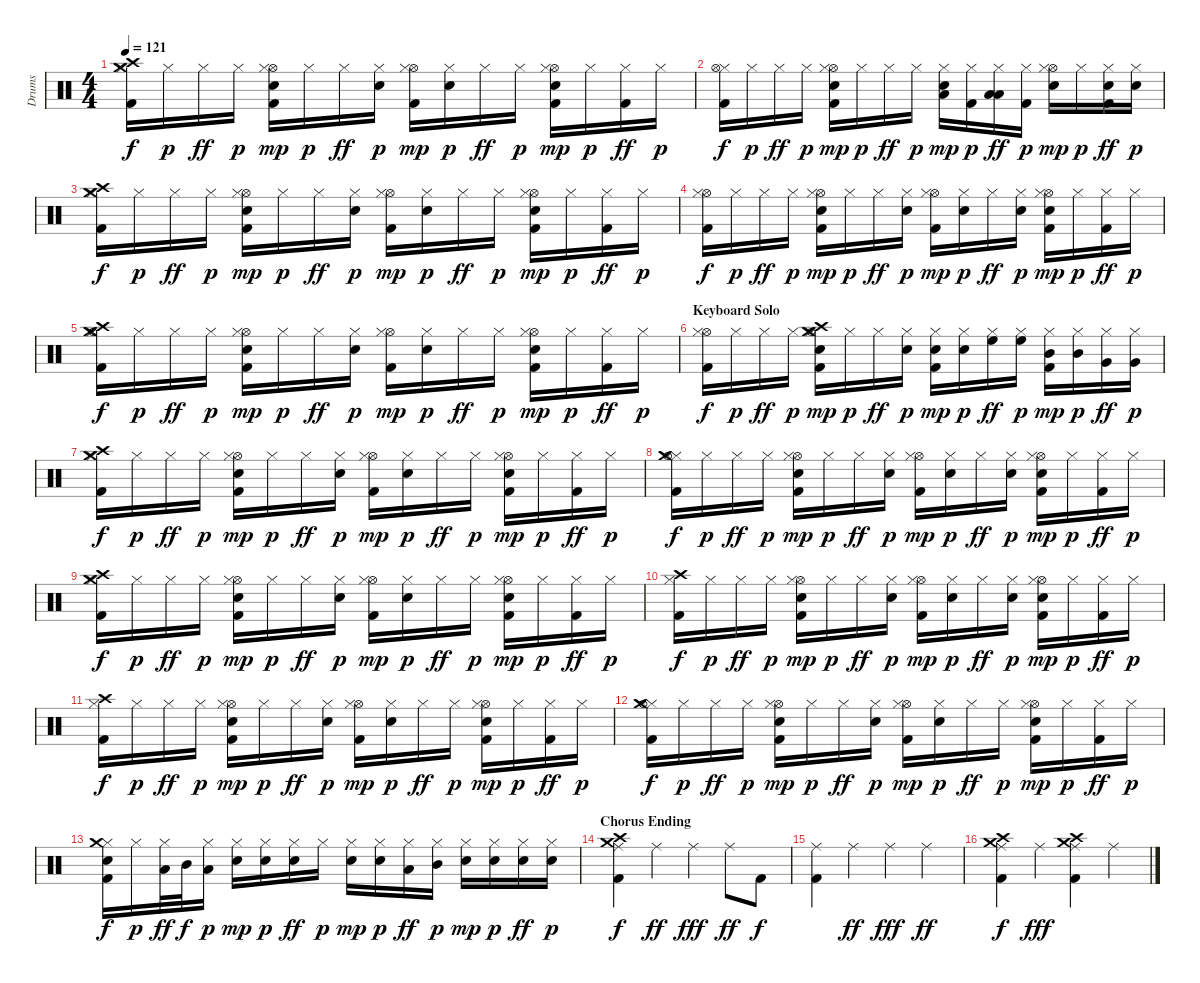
\track ("Drums" "Drums") {instrument percussion}
\staff {score}
\articulation defaults
\ts (4 4)
\tempo 121
\clef neutral
\ks c
("Crash medium (hit)" "Crash high (hit)" "Hi-Hat (closed)" "Kick (hit) 2").16{dy f} "Hi-Hat (closed)".16{dy p} "Hi-Hat (closed)".16{dy ff} "Hi-Hat (closed)".16{dy p} ("Hi-Hat (open)" "Kick (hit) 2" "Electric Snare (hit)" "Hi-Hat (closed)").16{dy mp} "Hi-Hat (closed)".16{dy p} "Hi-Hat (closed)".16{dy ff} ("Electric Snare (hit)" "Hi-Hat (closed)").16{dy p} ("Hi-Hat (open)" "Kick (hit) 2" "Hi-Hat (closed)").16{dy mp} ("Electric Snare (hit)" "Hi-Hat (closed)").16{dy p} "Hi-Hat (closed)".16{dy ff} "Hi-Hat (closed)".16{dy p} ("Hi-Hat (open)" "Kick (hit) 2" "Electric Snare (hit)" "Hi-Hat (closed)").16{dy mp} "Hi-Hat (closed)".16{dy p} ("Kick (hit) 2" "Hi-Hat (closed)").16{dy ff} "Hi-Hat (closed)".16{dy p} |
("Hi-Hat (closed)" "Hi-Hat (open)" "Kick (hit) 2").16{dy f} "Hi-Hat (closed)".16{dy p} "Hi-Hat (closed)".16{dy ff} "Hi-Hat (closed)".16{dy p} ("Hi-Hat (open)" "Snare (hit) 2" "Kick (hit) 2" "Hi-Hat (closed)").16{dy mp} "Hi-Hat (closed)".16{dy p} "Hi-Hat (closed)".16{dy ff} "Hi-Hat (closed)".16{dy p} ("Electric Snare (hit)" "Low Tom (hit)" "Hi-Hat (closed)").16{dy mp} ("Kick (hit) 2" "Hi-Hat (closed)").16{dy p} ("Low Tom (hit)" "Low Floor Tom (hit)" "Hi-Hat (closed)").16{dy ff} ("Kick (hit) 2" "Hi-Hat (closed)").16{dy p} ("Hi-Hat (open)" "Snare (hit) 2" "Hi-Hat (closed)").16{dy mp} "Hi-Hat (closed)".16{dy p} ("Kick (hit) 2" "Snare (hit) 2" "Hi-Hat (closed)").16{dy ff} ("Electric Snare (hit)" "Hi-Hat (closed)").16{dy p} |
("Crash medium (hit)" "Crash high (hit)" "Kick (hit) 2" "Hi-Hat (closed)").16{dy f} "Hi-Hat (closed)".16{dy p} "Hi-Hat (closed)".16{dy ff} "Hi-Hat (closed)".16{dy p} ("Hi-Hat (open)" "Kick (hit) 2" "Electric Snare (hit)" "Hi-Hat (closed)").16{dy mp} "Hi-Hat (closed)".16{dy p} "Hi-Hat (closed)".16{dy ff} ("Electric Snare (hit)" "Hi-Hat (closed)").16{dy p} ("Hi-Hat (open)" "Kick (hit) 2" "Hi-Hat (closed)").16{dy mp} ("Electric Snare (hit)" "Hi-Hat (closed)").16{dy p} "Hi-Hat (closed)".16{dy ff} "Hi-Hat (closed)".16{dy p} ("Hi-Hat (open)" "Kick (hit) 2" "Electric Snare (hit)" "Hi-Hat (closed)").16{dy mp} "Hi-Hat (closed)".16{dy p} ("Kick (hit) 2" "Hi-Hat (closed)").16{dy ff} "Hi-Hat (closed)".16{dy p} |
("Hi-Hat (open)" "Kick (hit) 2" "Hi-Hat (closed)").16{dy f} "Hi-Hat (closed)".16{dy p} "Hi-Hat (closed)".16{dy ff} "Hi-Hat (closed)".16{dy p} ("Hi-Hat (open)" "Kick (hit) 2" "Electric Snare (hit)" "Hi-Hat (closed)").16{dy mp} "Hi-Hat (closed)".16{dy p} "Hi-Hat (closed)".16{dy ff} ("Electric Snare (hit)" "Hi-Hat (closed)").16{dy p} ("Hi-Hat (open)" "Kick (hit) 2" "Hi-Hat (closed)").16{dy mp} ("Electric Snare (hit)" "Hi-Hat (closed)").16{dy p} "Hi-Hat (closed)".16{dy ff} ("Electric Snare (hit)" "Hi-Hat (closed)").16{dy p} ("Hi-Hat (open)" "Kick (hit) 2" "Electric Snare (hit)" "Hi-Hat (closed)").16{dy mp} "Hi-Hat (closed)".16{dy p} ("Kick (hit) 2" "Hi-Hat (closed)").16{dy ff} "Hi-Hat (closed)".16{dy p} |
("Hi-Hat (open)" "Kick (hit) 2" "Crash high (hit)" "Crash medium (hit)" "Hi-Hat (closed)").16{dy f} "Hi-Hat (closed)".16{dy p} "Hi-Hat (closed)".16{dy ff} "Hi-Hat (closed)".16{dy p} ("Hi-Hat (open)" "Kick (hit) 2" "Electric Snare (hit)" "Hi-Hat (closed)").16{dy mp} "Hi-Hat (closed)".16{dy p} "Hi-Hat (closed)".16{dy ff} ("Electric Snare (hit)" "Hi-Hat (closed)").16{dy p} ("Hi-Hat (open)" "Kick (hit) 2" "Hi-Hat (closed)").16{dy mp} ("Electric Snare (hit)" "Hi-Hat (closed)").16{dy p} "Hi-Hat (closed)".16{dy ff} "Hi-Hat (closed)".16{dy p} ("Hi-Hat (open)" "Kick (hit) 2" "Electric Snare (hit)" "Hi-Hat (closed)").16{dy mp} "Hi-Hat (closed)".16{dy p} ("Kick (hit) 2" "Hi-Hat (closed)").16{dy ff} "Hi-Hat (closed)".16{dy p} |
\section ("" "Keyboard Solo")
("Hi-Hat (open)" "Kick (hit) 2" "Hi-Hat (closed)").16{dy f} "Hi-Hat (closed)".16{dy p} "Hi-Hat (closed)".16{dy ff} "Hi-Hat (closed)".16{dy p} ("Hi-Hat (open)" "Kick (hit) 2" "Crash high (hit)" "Crash medium (hit)" "Electric Snare (hit)" "Hi-Hat (closed)").16{dy mp} "Hi-Hat (closed)".16{dy p} "Hi-Hat (closed)".16{dy ff} ("Electric Snare (hit)" "Hi-Hat (closed)").16{dy p} ("Snare (hit) 2" "Kick (hit) 2" "Hi-Hat (closed)").16{dy mp} ("Electric Snare (hit)" "Hi-Hat (closed)").16{dy p} ("High Floor Tom (hit)" "Hi-Hat (closed)").16{dy ff} ("High Floor Tom (hit)" "Hi-Hat (closed)").16{dy p} ("Mid Tom (hit)" "Kick (hit) 2" "Hi-Hat (closed)").16{dy mp} ("Mid Tom (hit)" "Hi-Hat (closed)").16{dy p} ("Very Low Tom (hit)" "Hi-Hat (closed)").16{dy ff} ("Very Low Tom (hit)" "Hi-Hat (closed)").16{dy p} |
("Kick (hit) 2" "Crash high (hit)" "Crash medium (hit)" "Hi-Hat (closed)").16{dy f} "Hi-Hat (closed)".16{dy p} "Hi-Hat (closed)".16{dy ff} "Hi-Hat (closed)".16{dy p} ("Hi-Hat (open)" "Kick (hit) 2" "Electric Snare (hit)" "Hi-Hat (closed)").16{dy mp} "Hi-Hat (closed)".16{dy p} "Hi-Hat (closed)".16{dy ff} ("Electric Snare (hit)" "Hi-Hat (closed)").16{dy p} ("Hi-Hat (open)" "Kick (hit) 2" "Hi-Hat (closed)").16{dy mp} ("Electric Snare (hit)" "Hi-Hat (closed)").16{dy p} "Hi-Hat (closed)".16{dy ff} "Hi-Hat (closed)".16{dy p} ("Hi-Hat (open)" "Kick (hit) 2" "Electric Snare (hit)" "Hi-Hat (closed)").16{dy mp} "Hi-Hat (closed)".16{dy p} ("Kick (hit) 2" "Hi-Hat (closed)").16{dy ff} "Hi-Hat (closed)".16{dy p} |
("Hi-Hat (closed)" "Crash medium (hit)" "Hi-Hat (open)" "Kick (hit) 2").16{dy f} "Hi-Hat (closed)".16{dy p} "Hi-Hat (closed)".16{dy ff} "Hi-Hat (closed)".16{dy p} ("Hi-Hat (open)" "Kick (hit) 2" "Electric Snare (hit)" "Hi-Hat (closed)").16{dy mp} "Hi-Hat (closed)".16{dy p} "Hi-Hat (closed)".16{dy ff} ("Electric Snare (hit)" "Hi-Hat (closed)").16{dy p} ("Hi-Hat (open)" "Kick (hit) 2" "Hi-Hat (closed)").16{dy mp} ("Electric Snare (hit)" "Hi-Hat (closed)").16{dy p} "Hi-Hat (closed)".16{dy ff} ("Electric Snare (hit)" "Hi-Hat (closed)").16{dy p} ("Hi-Hat (open)" "Kick (hit) 2" "Electric Snare (hit)" "Hi-Hat (closed)").16{dy mp} "Hi-Hat (closed)".16{dy p} ("Kick (hit) 2" "Hi-Hat (closed)").16{dy ff} "Hi-Hat (closed)".16{dy p} |
("Crash high (hit)" "Crash medium (hit)" "Hi-Hat (closed)" "Kick (hit) 2").16{dy f} "Hi-Hat (closed)".16{dy p} "Hi-Hat (closed)".16{dy ff} "Hi-Hat (closed)".16{dy p} ("Hi-Hat (open)" "Kick (hit) 2" "Electric Snare (hit)" "Hi-Hat (closed)").16{dy mp} "Hi-Hat (closed)".16{dy p} "Hi-Hat (closed)".16{dy ff} ("Electric Snare (hit)" "Hi-Hat (closed)").16{dy p} ("Hi-Hat (open)" "Kick (hit) 2" "Hi-Hat (closed)").16{dy mp} ("Electric Snare (hit)" "Hi-Hat (closed)").16{dy p} "Hi-Hat (closed)".16{dy ff} "Hi-Hat (closed)".16{dy p} ("Hi-Hat (open)" "Kick (hit) 2" "Electric Snare (hit)" "Hi-Hat (closed)").16{dy mp} "Hi-Hat (closed)".16{dy p} ("Kick (hit) 2" "Hi-Hat (closed)").16{dy ff} "Hi-Hat (closed)".16{dy p} |
("Crash high (hit)" "Hi-Hat (closed)" "Kick (hit) 2").16{dy f} "Hi-Hat (closed)".16{dy p} "Hi-Hat (closed)".16{dy ff} "Hi-Hat (closed)".16{dy p} ("Hi-Hat (open)" "Kick (hit) 2" "Electric Snare (hit)" "Hi-Hat (closed)").16{dy mp} "Hi-Hat (closed)".16{dy p} "Hi-Hat (closed)".16{dy ff} ("Electric Snare (hit)" "Hi-Hat (closed)").16{dy p} ("Hi-Hat (open)" "Kick (hit) 2" "Hi-Hat (closed)").16{dy mp} ("Electric Snare (hit)" "Hi-Hat (closed)").16{dy p} "Hi-Hat (closed)".16{dy ff} ("Electric Snare (hit)" "Hi-Hat (closed)").16{dy p} ("Hi-Hat (open)" "Kick (hit) 2" "Electric Snare (hit)" "Hi-Hat (closed)").16{dy mp} "Hi-Hat (closed)".16{dy p} ("Kick (hit) 2" "Hi-Hat (closed)").16{dy ff} "Hi-Hat (closed)".16{dy p} |
("Hi-Hat (closed)" "Crash high (hit)" "Kick (hit) 2").16{dy f} "Hi-Hat (closed)".16{dy p} "Hi-Hat (closed)".16{dy ff} "Hi-Hat (closed)".16{dy p} ("Hi-Hat (open)" "Kick (hit) 2" "Electric Snare (hit)" "Hi-Hat (closed)").16{dy mp} "Hi-Hat (closed)".16{dy p} "Hi-Hat (closed)".16{dy ff} ("Electric Snare (hit)" "Hi-Hat (closed)").16{dy p} ("Hi-Hat (open)" "Kick (hit) 2" "Hi-Hat (closed)").16{dy mp} ("Electric Snare (hit)" "Hi-Hat (closed)").16{dy p} "Hi-Hat (closed)".16{dy ff} "Hi-Hat (closed)".16{dy p} ("Hi-Hat (open)" "Kick (hit) 2" "Electric Snare (hit)" "Hi-Hat (closed)").16{dy mp} "Hi-Hat (closed)".16{dy p} ("Kick (hit) 2" "Hi-Hat (closed)").16{dy ff} "Hi-Hat (closed)".16{dy p} |
("Hi-Hat (closed)" "Crash medium (hit)" "Kick (hit) 2" "Hi-Hat (open)").16{dy f} "Hi-Hat (closed)".16{dy p} "Hi-Hat (closed)".16{dy ff} "Hi-Hat (closed)".16{dy p} ("Hi-Hat (open)" "Kick (hit) 2" "Electric Snare (hit)" "Hi-Hat (closed)").16{dy mp} "Hi-Hat (closed)".16{dy p} "Hi-Hat (closed)".16{dy ff} ("Electric Snare (hit)" "Hi-Hat (closed)").16{dy p} ("Hi-Hat (open)" "Kick (hit) 2" "Hi-Hat (closed)").16{dy mp} ("Electric Snare (hit)" "Hi-Hat (closed)").16{dy p} "Hi-Hat (closed)".16{dy ff} "Hi-Hat (closed)".16{dy p} ("Hi-Hat (open)" "Kick (hit) 2" "Electric Snare (hit)" "Hi-Hat (closed)").16{dy mp} "Hi-Hat (closed)".16{dy p} ("Kick (hit) 2" "Hi-Hat (closed)").16{dy ff} "Hi-Hat (closed)".16{dy p} |
("Hi-Hat (closed)" "Electric Snare (hit)" "Crash medium (hit)" "Kick (hit) 2").16{dy f} "Hi-Hat (closed)".16{dy p} ("Low Tom (hit)" "Hi-Hat (closed)").32{dy ff} "Mid Tom (hit)".32{dy f} ("Low Tom (hit)" "Hi-Hat (closed)").16{dy p} ("Snare (hit) 2" "Hi-Hat (closed)").16{dy mp} ("Electric Snare (hit)" "Hi-Hat (closed)").16{dy p} ("Snare (hit) 2" "Hi-Hat (closed)").16{dy ff} "Hi-Hat (closed)".16{dy p} ("Snare (hit) 2" "Hi-Hat (closed)").16{dy mp} ("Electric Snare (hit)" "Hi-Hat (closed)").16{dy p} ("Low Tom (hit)" "Hi-Hat (closed)").16{dy ff} ("Mid Tom (hit)" "Hi-Hat (closed)").16{dy p} ("Snare (hit) 2" "Hi-Hat (closed)").16{dy mp} ("Snare (hit) 2" "Hi-Hat (closed)").16{dy p} ("Snare (hit) 2" "Hi-Hat (closed)").16{dy ff} ("Snare (hit) 2" "Hi-Hat (closed)").16{dy p} |
\section ("" "Chorus Ending")
("Kick (hit) 2" "Crash medium (hit)" "Crash high (hit)" "Ride (middle)").4{dy f} "Ride (middle)".4{dy ff} "Ride (middle)".4{dy fff} "Ride (middle)".8{dy ff} "Kick (hit) 2".8{dy f} |
("Ride (middle)" "Kick (hit) 2").4 "Ride (middle)".4{dy ff} "Ride (middle)".4{dy fff} "Ride (middle)".4{dy ff} |
("Kick (hit) 2" "Crash high (hit)" "Crash medium (hit)" "Ride (middle)").4{dy f} "Ride (middle)".4{dy fff} ("Kick (hit) 2" "Crash high (hit)" "Crash medium (hit)" "Ride (middle)").4 "Ride (middle)".4
